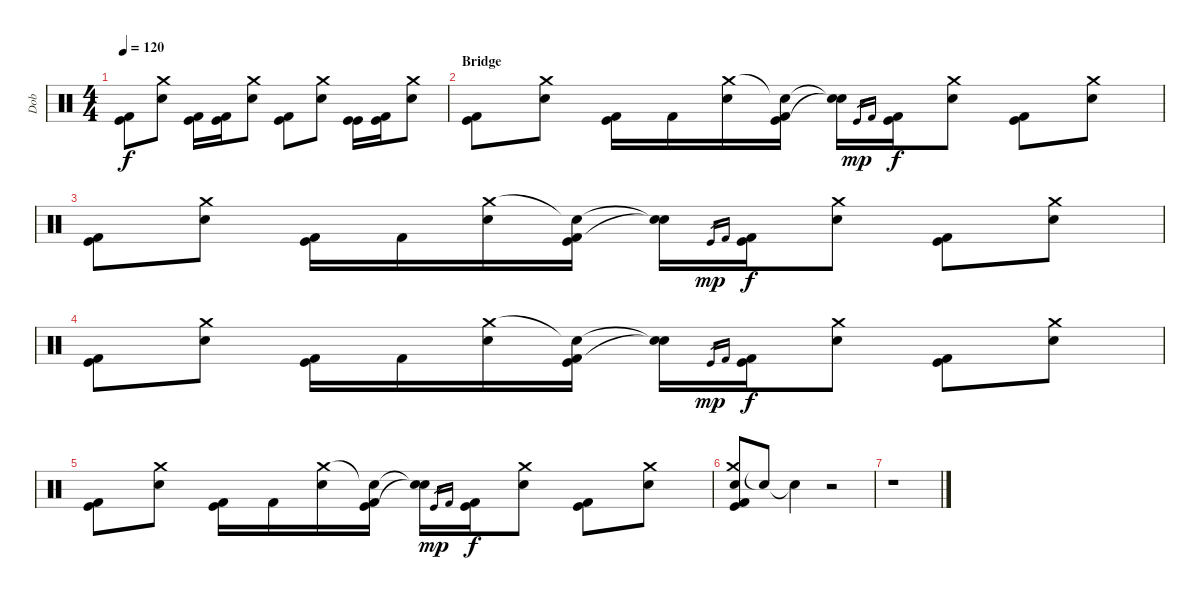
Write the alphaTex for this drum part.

\track ("Dob" "Dob") {instrument percussion}
\staff {score}
\articulation defaults
\ts (4 4)
\tempo 120
\clef neutral
\ks c
("Kick (hit)" "Kick (hit) 2").8{dy f} ("Crash medium (hit)" "Snare (hit) 2").8 ("Kick (hit)" "Kick (hit) 2").16 ("Kick (hit)" "Kick (hit) 2").16 ("Crash medium (hit)" "Snare (hit) 2").8 ("Kick (hit)" "Kick (hit) 2").8 ("Crash medium (hit)" "Snare (hit) 2").8 ("Kick (hit)" "Kick (hit)").16 ("Kick (hit)" "Kick (hit) 2").16 ("Crash medium (hit)" "Snare (hit) 2").8 |
\section ("" "Bridge")
("Kick (hit)" "Kick (hit) 2").8 ("Crash medium (hit)" "Snare (hit) 2").8 ("Kick (hit)" "Kick (hit) 2").16 "Kick (hit) 2".16 ("Crash medium (hit)" "Snare (hit) 2").16 ("Snare (hit)"{t} "Kick (hit)" "Kick (hit) 2").16 ("Snare (hit)"{t} "Snare (hit)"{t}).16 "Kick (hit)".16{gr dy mp} "Kick (hit) 2".16{gr} ("Kick (hit)" "Kick (hit) 2").16{dy f} ("Crash medium (hit)" "Snare (hit) 2").8 ("Kick (hit)" "Kick (hit) 2").8 ("Crash medium (hit)" "Snare (hit) 2").8 |
("Kick (hit)" "Kick (hit) 2").8 ("Crash medium (hit)" "Snare (hit) 2").8 ("Kick (hit)" "Kick (hit) 2").16 "Kick (hit) 2".16 ("Crash medium (hit)" "Snare (hit) 2").16 ("Snare (hit)"{t} "Kick (hit)" "Kick (hit) 2").16 ("Snare (hit)"{t} "Snare (hit)"{t}).16 "Kick (hit)".16{gr dy mp} "Kick (hit) 2".16{gr} ("Kick (hit)" "Kick (hit) 2").16{dy f} ("Crash medium (hit)" "Snare (hit) 2").8 ("Kick (hit)" "Kick (hit) 2").8 ("Crash medium (hit)" "Snare (hit) 2").8 |
("Kick (hit)" "Kick (hit) 2").8 ("Crash medium (hit)" "Snare (hit) 2").8 ("Kick (hit)" "Kick (hit) 2").16 "Kick (hit) 2".16 ("Crash medium (hit)" "Snare (hit) 2").16 ("Snare (hit)"{t} "Kick (hit)" "Kick (hit) 2").16 ("Snare (hit)"{t} "Snare (hit)"{t}).16 "Kick (hit)".16{gr dy mp} "Kick (hit) 2".16{gr} ("Kick (hit)" "Kick (hit) 2").16{dy f} ("Crash medium (hit)" "Snare (hit) 2").8 ("Kick (hit)" "Kick (hit) 2").8 ("Crash medium (hit)" "Snare (hit) 2").8 |
("Kick (hit)" "Kick (hit) 2").8 ("Crash medium (hit)" "Snare (hit) 2").8 ("Kick (hit)" "Kick (hit) 2").16 "Kick (hit) 2".16 ("Crash medium (hit)" "Snare (hit) 2").16 ("Snare (hit)"{t} "Kick (hit)" "Kick (hit) 2").16 ("Snare (hit)"{t} "Snare (hit)"{t}).16 "Kick (hit)".16{gr dy mp} "Kick (hit) 2".16{gr} ("Kick (hit)" "Kick (hit) 2").16{dy f} ("Crash medium (hit)" "Snare (hit) 2").8 ("Kick (hit)" "Kick (hit) 2").8 ("Crash medium (hit)" "Snare (hit) 2").8 |
("Crash medium (hit)" "Kick (hit)" "Kick (hit) 2" "Snare (hit) 2").8 "Snare (hit)"{t}.8 "Snare (hit)"{t}.4 r.2 |
r.1
